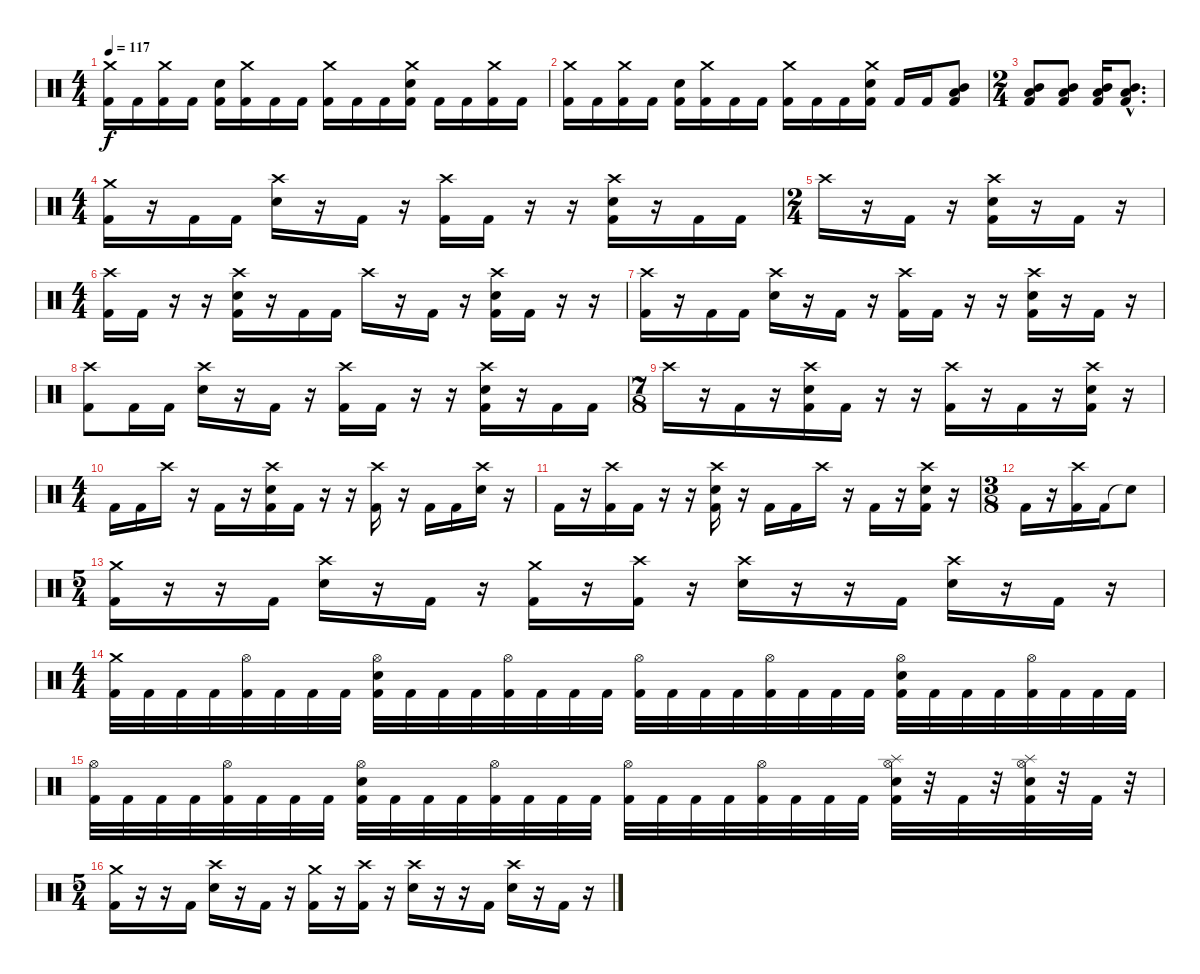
\track "" {instrument percussion}
\staff {score}
\articulation defaults
\ts (4 4)
\tempo 117
\clef neutral
\ks c
("Kick (hit) 2" "Crash medium (hit)").16{dy f} "Kick (hit) 2".16 ("Kick (hit) 2" "Crash medium (hit)").16 "Kick (hit) 2".16 ("Kick (hit) 2" "Electric Snare (hit)").16 ("Kick (hit) 2" "Crash medium (hit)").16 "Kick (hit) 2".16 "Kick (hit) 2".16 ("Kick (hit) 2" "Crash medium (hit)").16 "Kick (hit) 2".16 "Kick (hit) 2".16 ("Kick (hit) 2" "Electric Snare (hit)" "Crash medium (hit)").16 "Kick (hit) 2".16 "Kick (hit) 2".16 ("Kick (hit) 2" "Crash medium (hit)").16 "Kick (hit) 2".16 |
("Kick (hit) 2" "Crash medium (hit)").16 "Kick (hit) 2".16 ("Kick (hit) 2" "Crash medium (hit)").16 "Kick (hit) 2".16 ("Kick (hit) 2" "Electric Snare (hit)").16 ("Kick (hit) 2" "Crash medium (hit)").16 "Kick (hit) 2".16 "Kick (hit) 2".16 ("Kick (hit) 2" "Crash medium (hit)").16 "Kick (hit) 2".16 "Kick (hit) 2".16 ("Kick (hit) 2" "Electric Snare (hit)" "Crash medium (hit)").16 "Kick (hit) 2".16 "Kick (hit) 2".16 ("Kick (hit) 2" "Low Tom (hit)" "Mid Tom (hit)").8 |
\ts (2 4)
("Kick (hit) 2" "Mid Tom (hit)" "Low Tom (hit)").8 ("Kick (hit) 2" "Mid Tom (hit)" "Low Tom (hit)").8 ("Kick (hit) 2" "Mid Tom (hit)" "Low Tom (hit)").16 ("Kick (hit) 2"{hac} "Mid Tom (hit)"{hac} "Low Tom (hit)"{hac}).8{d} |
\ts (4 4)
("Kick (hit) 2" "Crash medium (hit)").16 r.16 "Kick (hit) 2".16 "Kick (hit) 2".16 ("Electric Snare (hit)" "Crash high (hit)").16 r.16 "Kick (hit) 2".16 r.16 ("Kick (hit) 2" "Crash high (hit)").16 "Kick (hit) 2".16 r.16 r.16 ("Kick (hit) 2" "Electric Snare (hit)" "Crash high (hit)").16 r.16 "Kick (hit) 2".16 "Kick (hit) 2".16 |
\ts (2 4)
"Crash high (hit)".16 r.16 "Kick (hit) 2".16 r.16 ("Kick (hit) 2" "Electric Snare (hit)" "Crash high (hit)").16 r.16 "Kick (hit) 2".16 r.16 |
\ts (4 4)
("Kick (hit) 2" "Crash high (hit)").16 "Kick (hit) 2".16 r.16 r.16 ("Kick (hit) 2" "Electric Snare (hit)" "Crash high (hit)").16 r.16 "Kick (hit) 2".16 "Kick (hit) 2".16 "Crash high (hit)".16 r.16 "Kick (hit) 2".16 r.16 ("Kick (hit) 2" "Electric Snare (hit)" "Crash high (hit)").16 "Kick (hit) 2".16 r.16 r.16 |
("Kick (hit) 2" "Crash high (hit)").16 r.16 "Kick (hit) 2".16 "Kick (hit) 2".16 ("Electric Snare (hit)" "Crash high (hit)").16 r.16 "Kick (hit) 2".16 r.16 ("Kick (hit) 2" "Crash high (hit)").16 "Kick (hit) 2".16 r.16 r.16 ("Kick (hit) 2" "Electric Snare (hit)" "Crash high (hit)").16 r.16 "Kick (hit) 2".16 r.16 |
("Kick (hit) 2" "Crash high (hit)").8 "Kick (hit) 2".16 "Kick (hit) 2".16 ("Electric Snare (hit)" "Crash high (hit)").16 r.16 "Kick (hit) 2".16 r.16 ("Kick (hit) 2" "Crash high (hit)").16 "Kick (hit) 2".16 r.16 r.16 ("Kick (hit) 2" "Electric Snare (hit)" "Crash high (hit)").16 r.16 "Kick (hit) 2".16 "Kick (hit) 2".16 |
\ts (7 8)
"Crash high (hit)".16 r.16 "Kick (hit) 2".16 r.16 ("Kick (hit) 2" "Electric Snare (hit)" "Crash high (hit)").16 "Kick (hit) 2".16 r.16 r.16 ("Kick (hit) 2" "Crash high (hit)").16 r.16 "Kick (hit) 2".16 r.16 ("Kick (hit) 2" "Electric Snare (hit)" "Crash high (hit)").16 r.16 |
\ts (4 4)
"Kick (hit) 2".16 "Kick (hit) 2".16 "Crash high (hit)".16 r.16 "Kick (hit) 2".16 r.16 ("Kick (hit) 2" "Electric Snare (hit)" "Crash high (hit)").16 "Kick (hit) 2".16 r.16 r.16 ("Kick (hit) 2" "Crash high (hit)").16 r.16 "Kick (hit) 2".16 "Kick (hit) 2".16 ("Electric Snare (hit)" "Crash high (hit)").16 r.16 |
"Kick (hit) 2".16 r.16 ("Kick (hit) 2" "Crash high (hit)").16 "Kick (hit) 2".16 r.16 r.16 ("Kick (hit) 2" "Electric Snare (hit)" "Crash high (hit)").16 r.16 "Kick (hit) 2".16 "Kick (hit) 2".16 "Crash high (hit)".16 r.16 "Kick (hit) 2".16 r.16 ("Kick (hit) 2" "Electric Snare (hit)" "Crash high (hit)").16 r.16 |
\ts (3 8)
"Kick (hit) 2".16 r.16 ("Kick (hit) 2" "Crash high (hit)").16 "Kick (hit) 2".16 "Snare (hit)"{t}.8 |
\ts (5 4)
("Kick (hit) 2" "Crash medium (hit)").16 r.16 r.16 "Kick (hit) 2".16 ("Electric Snare (hit)" "Crash high (hit)").16 r.16 "Kick (hit) 2".16 r.16 ("Kick (hit) 2" "Crash medium (hit)").16 r.16 ("Kick (hit) 2" "Crash high (hit)").16 r.16 ("Electric Snare (hit)" "Crash high (hit)").16 r.16 r.16 "Kick (hit) 2".16 ("Electric Snare (hit)" "Crash high (hit)").16 r.16 "Kick (hit) 2".16 r.16 |
\ts (4 4)
("Kick (hit) 2" "Crash medium (hit)").32 "Kick (hit) 2".32 "Kick (hit) 2".32 "Kick (hit) 2".32 ("Kick (hit) 2" "Hi-Hat (open)").32 "Kick (hit) 2".32 "Kick (hit) 2".32 "Kick (hit) 2".32 ("Kick (hit) 2" "Electric Snare (hit)" "Hi-Hat (open)").32 "Kick (hit) 2".32 "Kick (hit) 2".32 "Kick (hit) 2".32 ("Kick (hit) 2" "Hi-Hat (open)").32 "Kick (hit) 2".32 "Kick (hit) 2".32 "Kick (hit) 2".32 ("Kick (hit) 2" "Hi-Hat (open)").32 "Kick (hit) 2".32 "Kick (hit) 2".32 "Kick (hit) 2".32 ("Kick (hit) 2" "Hi-Hat (open)").32 "Kick (hit) 2".32 "Kick (hit) 2".32 "Kick (hit) 2".32 ("Kick (hit) 2" "Electric Snare (hit)" "Hi-Hat (open)").32 "Kick (hit) 2".32 "Kick (hit) 2".32 "Kick (hit) 2".32 ("Kick (hit) 2" "Hi-Hat (open)").32 "Kick (hit) 2".32 "Kick (hit) 2".32 "Kick (hit) 2".32 |
("Kick (hit) 2" "Hi-Hat (open)").32 "Kick (hit) 2".32 "Kick (hit) 2".32 "Kick (hit) 2".32 ("Kick (hit) 2" "Hi-Hat (open)").32 "Kick (hit) 2".32 "Kick (hit) 2".32 "Kick (hit) 2".32 ("Kick (hit) 2" "Electric Snare (hit)" "Hi-Hat (open)").32 "Kick (hit) 2".32 "Kick (hit) 2".32 "Kick (hit) 2".32 ("Kick (hit) 2" "Hi-Hat (open)").32 "Kick (hit) 2".32 "Kick (hit) 2".32 "Kick (hit) 2".32 ("Kick (hit) 2" "Hi-Hat (open)").32 "Kick (hit) 2".32 "Kick (hit) 2".32 "Kick (hit) 2".32 ("Kick (hit) 2" "Hi-Hat (open)").32 "Kick (hit) 2".32 "Kick (hit) 2".32 "Kick (hit) 2".32 ("Kick (hit) 2" "Electric Snare (hit)" "Splash (hit)" "Hi-Hat (open)").32 r.32 "Kick (hit) 2".32 r.32 ("Kick (hit) 2" "Electric Snare (hit)" "Splash (hit)" "Hi-Hat (open)").32 r.32 "Kick (hit) 2".32 r.32 |
\ts (5 4)
("Kick (hit) 2" "Crash medium (hit)").16 r.16 r.16 "Kick (hit) 2".16 ("Electric Snare (hit)" "Crash high (hit)").16 r.16 "Kick (hit) 2".16 r.16 ("Kick (hit) 2" "Crash medium (hit)").16 r.16 ("Kick (hit) 2" "Crash high (hit)").16 r.16 ("Electric Snare (hit)" "Crash high (hit)").16 r.16 r.16 "Kick (hit) 2".16 ("Electric Snare (hit)" "Crash high (hit)").16 r.16 "Kick (hit) 2".16 r.16
